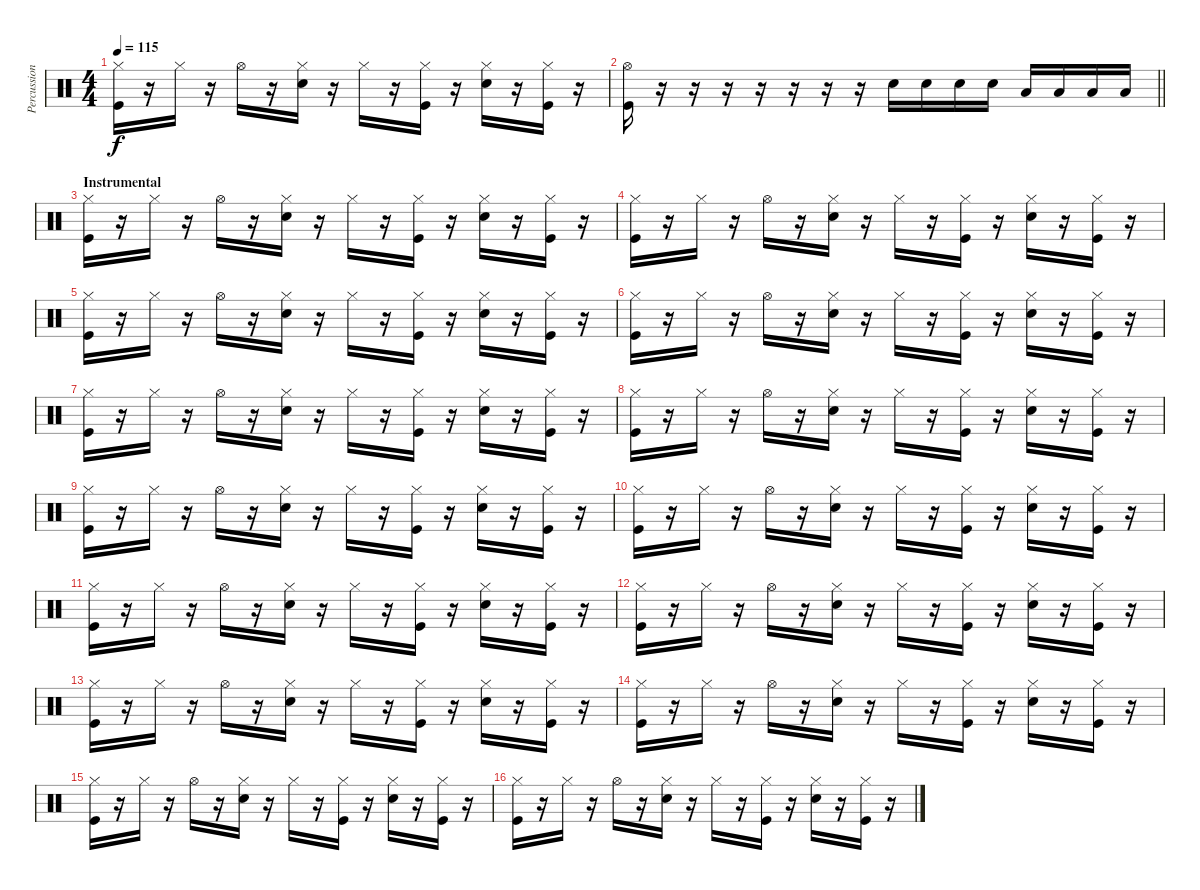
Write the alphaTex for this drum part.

\track ("Percussion" "Percussion") {instrument percussion}
\staff {score}
\articulation defaults
\ts (4 4)
\tempo 115
\clef neutral
\ks c
("Hi-Hat (closed)" "Kick (hit)").16{dy f} r.16 "Hi-Hat (closed)".16 r.16 "Hi-Hat (open)".16 r.16 ("Hi-Hat (closed)" "Snare (hit) 2").16 r.16 "Hi-Hat (closed)".16 r.16 ("Hi-Hat (closed)" "Kick (hit)").16 r.16 ("Hi-Hat (closed)" "Snare (hit) 2").16 r.16 ("Hi-Hat (closed)" "Kick (hit)").16 r.16 |
\barLineRight lightlight
("Hi-Hat (open)" "Kick (hit)").16 r.16 r.16 r.16 r.16 r.16 r.16 r.16 "Snare (hit) 2".16 "Snare (hit) 2".16 "Snare (hit) 2".16 "Snare (hit) 2".16 "Low Tom (hit)".16 "Low Tom (hit)".16 "Low Tom (hit)".16 "Low Tom (hit)".16 |
\section ("" "Instrumental")
("Hi-Hat (closed)" "Kick (hit)").16 r.16 "Hi-Hat (closed)".16 r.16 "Hi-Hat (open)".16 r.16 ("Hi-Hat (closed)" "Snare (hit) 2").16 r.16 "Hi-Hat (closed)".16 r.16 ("Hi-Hat (closed)" "Kick (hit)").16 r.16 ("Hi-Hat (closed)" "Snare (hit) 2").16 r.16 ("Hi-Hat (closed)" "Kick (hit)").16 r.16 |
("Hi-Hat (closed)" "Kick (hit)").16 r.16 "Hi-Hat (closed)".16 r.16 "Hi-Hat (open)".16 r.16 ("Hi-Hat (closed)" "Snare (hit) 2").16 r.16 "Hi-Hat (closed)".16 r.16 ("Hi-Hat (closed)" "Kick (hit)").16 r.16 ("Hi-Hat (closed)" "Snare (hit) 2").16 r.16 ("Hi-Hat (closed)" "Kick (hit)").16 r.16 |
("Hi-Hat (closed)" "Kick (hit)").16 r.16 "Hi-Hat (closed)".16 r.16 "Hi-Hat (open)".16 r.16 ("Hi-Hat (closed)" "Snare (hit) 2").16 r.16 "Hi-Hat (closed)".16 r.16 ("Hi-Hat (closed)" "Kick (hit)").16 r.16 ("Hi-Hat (closed)" "Snare (hit) 2").16 r.16 ("Hi-Hat (closed)" "Kick (hit)").16 r.16 |
("Hi-Hat (closed)" "Kick (hit)").16 r.16 "Hi-Hat (closed)".16 r.16 "Hi-Hat (open)".16 r.16 ("Hi-Hat (closed)" "Snare (hit) 2").16 r.16 "Hi-Hat (closed)".16 r.16 ("Hi-Hat (closed)" "Kick (hit)").16 r.16 ("Hi-Hat (closed)" "Snare (hit) 2").16 r.16 ("Hi-Hat (closed)" "Kick (hit)").16 r.16 |
("Hi-Hat (closed)" "Kick (hit)").16 r.16 "Hi-Hat (closed)".16 r.16 "Hi-Hat (open)".16 r.16 ("Hi-Hat (closed)" "Snare (hit) 2").16 r.16 "Hi-Hat (closed)".16 r.16 ("Hi-Hat (closed)" "Kick (hit)").16 r.16 ("Hi-Hat (closed)" "Snare (hit) 2").16 r.16 ("Hi-Hat (closed)" "Kick (hit)").16 r.16 |
("Hi-Hat (closed)" "Kick (hit)").16 r.16 "Hi-Hat (closed)".16 r.16 "Hi-Hat (open)".16 r.16 ("Hi-Hat (closed)" "Snare (hit) 2").16 r.16 "Hi-Hat (closed)".16 r.16 ("Hi-Hat (closed)" "Kick (hit)").16 r.16 ("Hi-Hat (closed)" "Snare (hit) 2").16 r.16 ("Hi-Hat (closed)" "Kick (hit)").16 r.16 |
("Hi-Hat (closed)" "Kick (hit)").16 r.16 "Hi-Hat (closed)".16 r.16 "Hi-Hat (open)".16 r.16 ("Hi-Hat (closed)" "Snare (hit) 2").16 r.16 "Hi-Hat (closed)".16 r.16 ("Hi-Hat (closed)" "Kick (hit)").16 r.16 ("Hi-Hat (closed)" "Snare (hit) 2").16 r.16 ("Hi-Hat (closed)" "Kick (hit)").16 r.16 |
("Hi-Hat (closed)" "Kick (hit)").16 r.16 "Hi-Hat (closed)".16 r.16 "Hi-Hat (open)".16 r.16 ("Hi-Hat (closed)" "Snare (hit) 2").16 r.16 "Hi-Hat (closed)".16 r.16 ("Hi-Hat (closed)" "Kick (hit)").16 r.16 ("Hi-Hat (closed)" "Snare (hit) 2").16 r.16 ("Hi-Hat (closed)" "Kick (hit)").16 r.16 |
("Hi-Hat (closed)" "Kick (hit)").16 r.16 "Hi-Hat (closed)".16 r.16 "Hi-Hat (open)".16 r.16 ("Hi-Hat (closed)" "Snare (hit) 2").16 r.16 "Hi-Hat (closed)".16 r.16 ("Hi-Hat (closed)" "Kick (hit)").16 r.16 ("Hi-Hat (closed)" "Snare (hit) 2").16 r.16 ("Hi-Hat (closed)" "Kick (hit)").16 r.16 |
("Hi-Hat (closed)" "Kick (hit)").16 r.16 "Hi-Hat (closed)".16 r.16 "Hi-Hat (open)".16 r.16 ("Hi-Hat (closed)" "Snare (hit) 2").16 r.16 "Hi-Hat (closed)".16 r.16 ("Hi-Hat (closed)" "Kick (hit)").16 r.16 ("Hi-Hat (closed)" "Snare (hit) 2").16 r.16 ("Hi-Hat (closed)" "Kick (hit)").16 r.16 |
("Hi-Hat (closed)" "Kick (hit)").16 r.16 "Hi-Hat (closed)".16 r.16 "Hi-Hat (open)".16 r.16 ("Hi-Hat (closed)" "Snare (hit) 2").16 r.16 "Hi-Hat (closed)".16 r.16 ("Hi-Hat (closed)" "Kick (hit)").16 r.16 ("Hi-Hat (closed)" "Snare (hit) 2").16 r.16 ("Hi-Hat (closed)" "Kick (hit)").16 r.16 |
("Hi-Hat (closed)" "Kick (hit)").16 r.16 "Hi-Hat (closed)".16 r.16 "Hi-Hat (open)".16 r.16 ("Hi-Hat (closed)" "Snare (hit) 2").16 r.16 "Hi-Hat (closed)".16 r.16 ("Hi-Hat (closed)" "Kick (hit)").16 r.16 ("Hi-Hat (closed)" "Snare (hit) 2").16 r.16 ("Hi-Hat (closed)" "Kick (hit)").16 r.16 |
("Hi-Hat (closed)" "Kick (hit)").16 r.16 "Hi-Hat (closed)".16 r.16 "Hi-Hat (open)".16 r.16 ("Hi-Hat (closed)" "Snare (hit) 2").16 r.16 "Hi-Hat (closed)".16 r.16 ("Hi-Hat (closed)" "Kick (hit)").16 r.16 ("Hi-Hat (closed)" "Snare (hit) 2").16 r.16 ("Hi-Hat (closed)" "Kick (hit)").16 r.16 |
("Hi-Hat (closed)" "Kick (hit)").16 r.16 "Hi-Hat (closed)".16 r.16 "Hi-Hat (open)".16 r.16 ("Hi-Hat (closed)" "Snare (hit) 2").16 r.16 "Hi-Hat (closed)".16 r.16 ("Hi-Hat (closed)" "Kick (hit)").16 r.16 ("Hi-Hat (closed)" "Snare (hit) 2").16 r.16 ("Hi-Hat (closed)" "Kick (hit)").16 r.16
